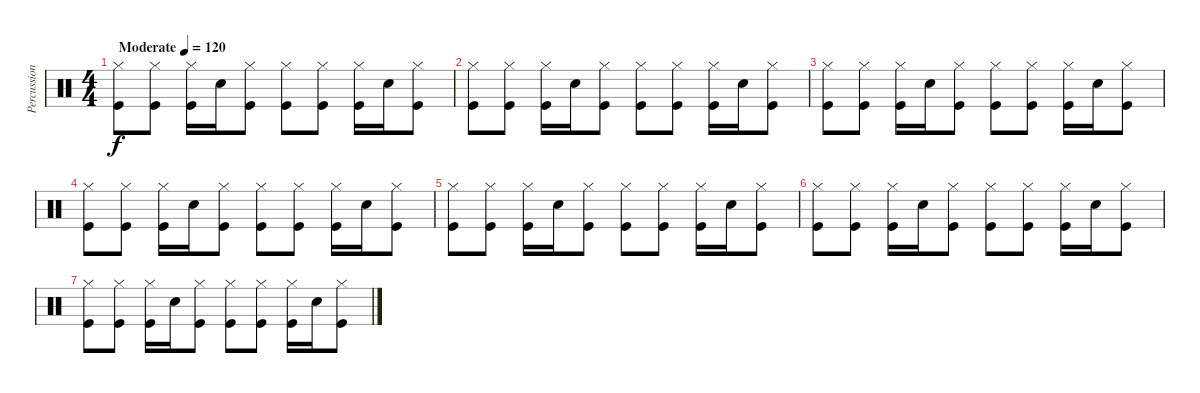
\track ("Percussion" "Percussion") {instrument percussion}
\staff {score}
\articulation defaults
\ts (4 4)
\tempo (120 "Moderate")
\clef neutral
\ks c
("Hi-Hat (closed)" "Kick (hit)").8{dy f} ("Hi-Hat (closed)" "Kick (hit)").8 ("Hi-Hat (closed)" "Kick (hit)").16 "Snare (hit) 2".16 ("Hi-Hat (closed)" "Kick (hit)").8 ("Hi-Hat (closed)" "Kick (hit)").8 ("Hi-Hat (closed)" "Kick (hit)").8 ("Hi-Hat (closed)" "Kick (hit)").16 "Snare (hit) 2".16 ("Hi-Hat (closed)" "Kick (hit)").8 |
("Hi-Hat (closed)" "Kick (hit)").8 ("Hi-Hat (closed)" "Kick (hit)").8 ("Hi-Hat (closed)" "Kick (hit)").16 "Snare (hit) 2".16 ("Hi-Hat (closed)" "Kick (hit)").8 ("Hi-Hat (closed)" "Kick (hit)").8 ("Hi-Hat (closed)" "Kick (hit)").8 ("Hi-Hat (closed)" "Kick (hit)").16 "Snare (hit) 2".16 ("Hi-Hat (closed)" "Kick (hit)").8 |
("Hi-Hat (closed)" "Kick (hit)").8 ("Hi-Hat (closed)" "Kick (hit)").8 ("Hi-Hat (closed)" "Kick (hit)").16 "Snare (hit) 2".16 ("Hi-Hat (closed)" "Kick (hit)").8 ("Hi-Hat (closed)" "Kick (hit)").8 ("Hi-Hat (closed)" "Kick (hit)").8 ("Hi-Hat (closed)" "Kick (hit)").16 "Snare (hit) 2".16 ("Hi-Hat (closed)" "Kick (hit)").8 |
("Hi-Hat (closed)" "Kick (hit)").8 ("Hi-Hat (closed)" "Kick (hit)").8 ("Hi-Hat (closed)" "Kick (hit)").16 "Snare (hit) 2".16 ("Hi-Hat (closed)" "Kick (hit)").8 ("Hi-Hat (closed)" "Kick (hit)").8 ("Hi-Hat (closed)" "Kick (hit)").8 ("Hi-Hat (closed)" "Kick (hit)").16 "Snare (hit) 2".16 ("Hi-Hat (closed)" "Kick (hit)").8 |
("Hi-Hat (closed)" "Kick (hit)").8 ("Hi-Hat (closed)" "Kick (hit)").8 ("Hi-Hat (closed)" "Kick (hit)").16 "Snare (hit) 2".16 ("Hi-Hat (closed)" "Kick (hit)").8 ("Hi-Hat (closed)" "Kick (hit)").8 ("Hi-Hat (closed)" "Kick (hit)").8 ("Hi-Hat (closed)" "Kick (hit)").16 "Snare (hit) 2".16 ("Hi-Hat (closed)" "Kick (hit)").8 |
("Hi-Hat (closed)" "Kick (hit)").8 ("Hi-Hat (closed)" "Kick (hit)").8 ("Hi-Hat (closed)" "Kick (hit)").16 "Snare (hit) 2".16 ("Hi-Hat (closed)" "Kick (hit)").8 ("Hi-Hat (closed)" "Kick (hit)").8 ("Hi-Hat (closed)" "Kick (hit)").8 ("Hi-Hat (closed)" "Kick (hit)").16 "Snare (hit) 2".16 ("Hi-Hat (closed)" "Kick (hit)").8 |
("Hi-Hat (closed)" "Kick (hit)").8 ("Hi-Hat (closed)" "Kick (hit)").8 ("Hi-Hat (closed)" "Kick (hit)").16 "Snare (hit) 2".16 ("Hi-Hat (closed)" "Kick (hit)").8 ("Hi-Hat (closed)" "Kick (hit)").8 ("Hi-Hat (closed)" "Kick (hit)").8 ("Hi-Hat (closed)" "Kick (hit)").16 "Snare (hit) 2".16 ("Hi-Hat (closed)" "Kick (hit)").8
